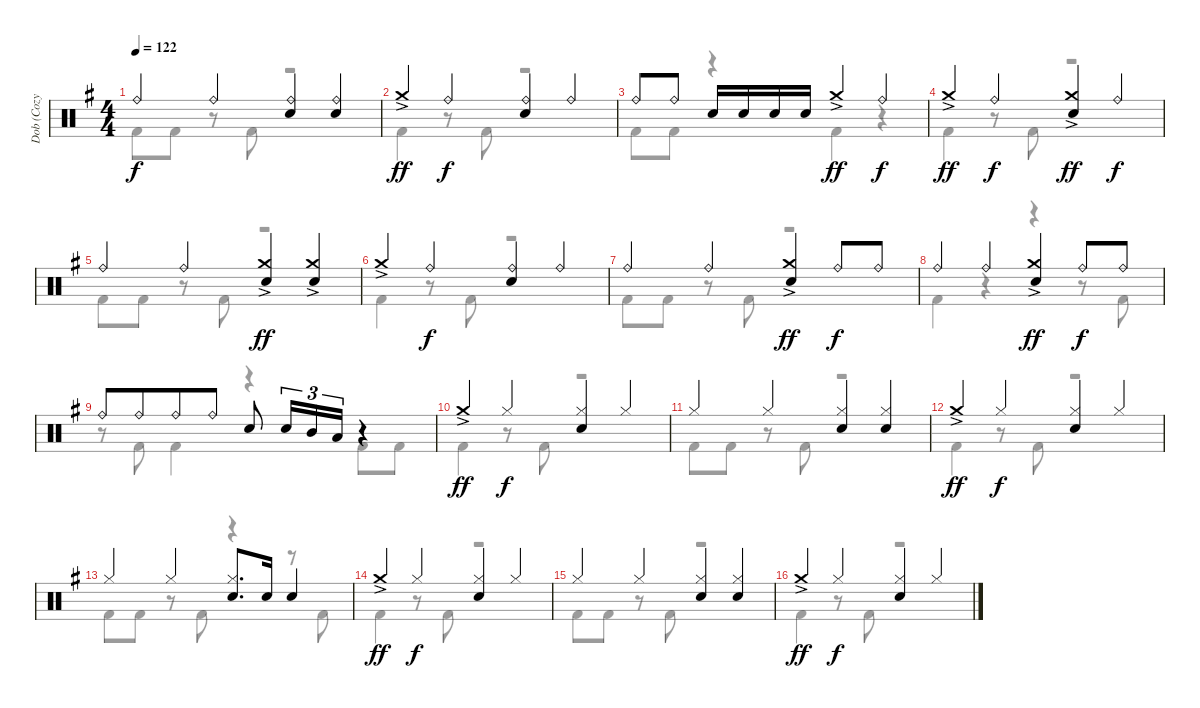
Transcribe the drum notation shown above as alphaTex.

\track ("Dob (Cozy Powell)" "Dob (Cozy ") {instrument percussion}
\staff {score}
\articulation defaults
\voice
\ts (4 4)
\tempo 122
\clef neutral
\ks g "Ride (bell)".4{dy f} "Ride (bell)".4
("Ride (bell)" "Electric Snare (hit)").4 ("Ride (bell)" "Electric Snare (hit)").4 |
"Crash medium (hit)"{ac}.4{dy ff} "Ride (bell)".4{dy f} ("Ride (bell)" "Electric Snare (hit)").4 "Ride (bell)".4 |
"Ride (bell)".8 "Ride (bell)".8 "Electric Snare (hit)".16 "Electric Snare (hit)".16 "Electric Snare (hit)".16 "Electric Snare (hit)".16 "Crash medium (hit)"{ac}.4{dy ff} "Ride (bell)".4{dy f} |
"Crash medium (hit)"{ac}.4{dy ff} "Ride (bell)".4{dy f} ("Crash medium (hit)"{ac} "Electric Snare (hit)").4{dy ff} "Ride (bell)".4{dy f} |
"Ride (bell)".4 "Ride (bell)".4 ("Crash medium (hit)"{ac} "Electric Snare (hit)").4{dy ff} ("Crash medium (hit)"{ac} "Electric Snare (hit)").4 |
"Crash medium (hit)"{ac}.4 "Ride (bell)".4{dy f} ("Ride (bell)" "Electric Snare (hit)").4 "Ride (bell)".4 |
"Ride (bell)".4 "Ride (bell)".4 ("Crash medium (hit)" "Electric Snare (hit)"{ac}).4{dy ff} "Ride (bell)".8{dy f} "Ride (bell)".8 |
"Ride (bell)".4 "Ride (bell)".4 ("Crash medium (hit)" "Electric Snare (hit)"{ac}).4{dy ff} "Ride (bell)".8{dy f} "Ride (bell)".8 |
"Ride (bell)".8 "Ride (bell)".8{beam merge} "Ride (bell)".8 "Ride (bell)".8 "Electric Snare (hit)".8 "Electric Snare (hit)".16{tu (3 2)} "Mid Tom (hit)".16{tu (3 2)} "Low Tom (hit)".16{tu (3 2)} r.4 |
"Crash medium (hit)"{ac}.4{dy ff} "Hi-Hat (closed)".4{dy f} ("Hi-Hat (closed)" "Electric Snare (hit)").4 "Hi-Hat (closed)".4 |
"Hi-Hat (closed)".4 "Hi-Hat (closed)".4 ("Hi-Hat (closed)" "Electric Snare (hit)").4 ("Hi-Hat (closed)" "Electric Snare (hit)").4 |
"Crash medium (hit)"{ac}.4{dy ff} "Hi-Hat (closed)".4{dy f} ("Hi-Hat (closed)" "Electric Snare (hit)").4 "Hi-Hat (closed)".4 |
"Hi-Hat (closed)".4 "Hi-Hat (closed)".4 ("Hi-Hat (closed)" "Electric Snare (hit)").8{d} "Electric Snare (hit)".16 "Electric Snare (hit)".4 |
"Crash medium (hit)"{ac}.4{dy ff} "Hi-Hat (closed)".4{dy f} ("Hi-Hat (closed)" "Electric Snare (hit)").4 "Hi-Hat (closed)".4 |
"Hi-Hat (closed)".4 "Hi-Hat (closed)".4 ("Hi-Hat (closed)" "Electric Snare (hit)").4 ("Hi-Hat (closed)" "Electric Snare (hit)").4 |
"Crash medium (hit)"{ac}.4{dy ff} "Hi-Hat (closed)".4{dy f} ("Hi-Hat (closed)" "Electric Snare (hit)").4 "Hi-Hat (closed)".4
\voice
\clef neutral
\ottava regular
\simile none
\ks g "Kick (hit) 2".8{dy f} "Kick (hit) 2".8
r.8 "Kick (hit) 2".8 r.2 |
"Kick (hit) 2".4 r.8 "Kick (hit) 2".8 r.2 |
"Kick (hit) 2".8 "Kick (hit) 2".8 r.4 "Kick (hit) 2".4 r.4 |
"Kick (hit) 2".4 r.8 "Kick (hit) 2".8 r.2 |
"Kick (hit) 2".8 "Kick (hit) 2".8 r.8 "Kick (hit) 2".8 r.2 |
"Kick (hit) 2".4 r.8 "Kick (hit) 2".8 r.2 |
"Kick (hit) 2".8 "Kick (hit) 2".8 r.8 "Kick (hit) 2".8 r.2 |
"Kick (hit) 2".4 r.4 r.4 r.8 "Kick (hit) 2".8 |
r.8 "Kick (hit) 2".8 "Kick (hit) 2".4 r.4 "Kick (hit) 2".8 "Kick (hit) 2".8 |
"Kick (hit) 2".4 r.8 "Kick (hit) 2".8 r.2 |
"Kick (hit) 2".8 "Kick (hit) 2".8 r.8 "Kick (hit) 2".8 r.2 |
"Kick (hit) 2".4 r.8 "Kick (hit) 2".8 r.2 |
"Kick (hit) 2".8 "Kick (hit) 2".8 r.8 "Kick (hit) 2".8 r.4 r.8 "Kick (hit) 2".8 |
"Kick (hit) 2".4 r.8 "Kick (hit) 2".8 r.2 |
"Kick (hit) 2".8 "Kick (hit) 2".8 r.8 "Kick (hit) 2".8 r.2 |
"Kick (hit) 2".4 r.8 "Kick (hit) 2".8 r.2
